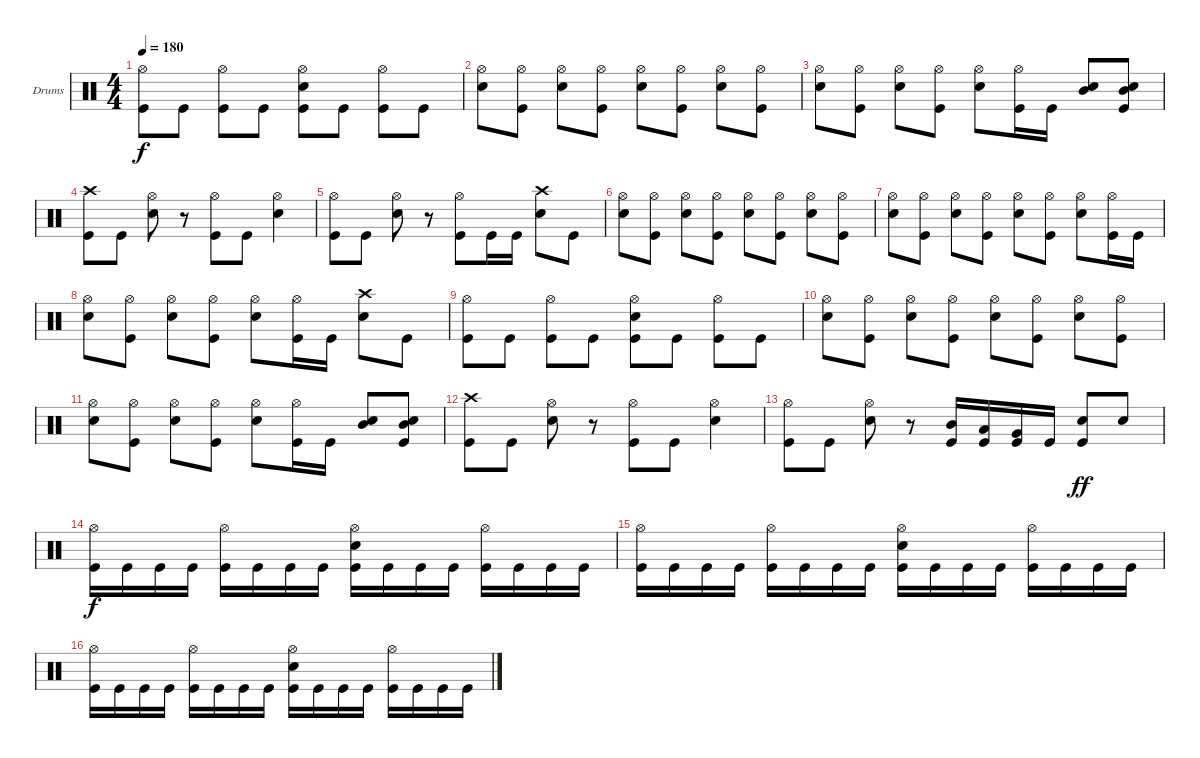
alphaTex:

\bracketExtendMode groupsimilarinstruments
\firstSystemTrackNameOrientation horizontal
\otherSystemsTrackNameOrientation horizontal
\track ("Drumkit" "Drums") {instrument percussion}
\staff {score}
\articulation defaults
\ts (4 4)
\tempo 180
\clef neutral
\ks c
("Hi-Hat (open)" "Kick (hit)").8{dy f} "Kick (hit)".8 ("Hi-Hat (open)" "Kick (hit)").8 "Kick (hit)".8 ("Hi-Hat (open)" "Snare (hit) 2" "Kick (hit)").8 "Kick (hit)".8 ("Hi-Hat (open)" "Kick (hit)").8 "Kick (hit)".8 |
("Hi-Hat (open)" "Snare (hit) 2").8 ("Hi-Hat (open)" "Kick (hit)").8 ("Hi-Hat (open)" "Snare (hit) 2").8 ("Hi-Hat (open)" "Kick (hit)").8 ("Hi-Hat (open)" "Snare (hit) 2").8 ("Hi-Hat (open)" "Kick (hit)").8 ("Hi-Hat (open)" "Snare (hit) 2").8 ("Hi-Hat (open)" "Kick (hit)").8 |
("Hi-Hat (open)" "Snare (hit) 2").8 ("Hi-Hat (open)" "Kick (hit)").8 ("Hi-Hat (open)" "Snare (hit) 2").8 ("Hi-Hat (open)" "Kick (hit)").8 ("Hi-Hat (open)" "Snare (hit) 2").8 ("Hi-Hat (open)" "Kick (hit)").16 "Kick (hit)".16 ("Mid Tom (hit)" "Snare (hit) 2").8 ("Mid Tom (hit)" "Snare (hit) 2" "Kick (hit)").8 |
("Crash high (hit)" "Kick (hit)").8 "Kick (hit)".8 ("Hi-Hat (open)" "Snare (hit) 2").8 r.8 ("Hi-Hat (open)" "Kick (hit)").8 "Kick (hit)".8 ("Hi-Hat (open)" "Snare (hit) 2").4 |
("Hi-Hat (open)" "Kick (hit)").8 "Kick (hit)".8 ("Hi-Hat (open)" "Snare (hit) 2").8 r.8 ("Hi-Hat (open)" "Kick (hit)").8 "Kick (hit)".16 "Kick (hit)".16 ("Crash high (hit)" "Snare (hit) 2").8 "Kick (hit)".8 |
("Hi-Hat (open)" "Snare (hit) 2").8 ("Hi-Hat (open)" "Kick (hit)").8 ("Hi-Hat (open)" "Snare (hit) 2").8 ("Hi-Hat (open)" "Kick (hit)").8 ("Hi-Hat (open)" "Snare (hit) 2").8 ("Hi-Hat (open)" "Kick (hit)").8 ("Hi-Hat (open)" "Snare (hit) 2").8 ("Hi-Hat (open)" "Kick (hit)").8 |
("Hi-Hat (open)" "Snare (hit) 2").8 ("Hi-Hat (open)" "Kick (hit)").8 ("Hi-Hat (open)" "Snare (hit) 2").8 ("Hi-Hat (open)" "Kick (hit)").8 ("Hi-Hat (open)" "Snare (hit) 2").8 ("Hi-Hat (open)" "Kick (hit)").8 ("Hi-Hat (open)" "Snare (hit) 2").8 ("Hi-Hat (open)" "Kick (hit)").16 "Kick (hit)".16 |
("Hi-Hat (open)" "Snare (hit) 2").8 ("Hi-Hat (open)" "Kick (hit)").8 ("Hi-Hat (open)" "Snare (hit) 2").8 ("Hi-Hat (open)" "Kick (hit)").8 ("Hi-Hat (open)" "Snare (hit) 2").8 ("Hi-Hat (open)" "Kick (hit)").16 "Kick (hit)".16 ("Crash high (hit)" "Snare (hit) 2").8 "Kick (hit)".8 |
("Hi-Hat (open)" "Kick (hit)").8 "Kick (hit)".8 ("Hi-Hat (open)" "Kick (hit)").8 "Kick (hit)".8 ("Hi-Hat (open)" "Snare (hit) 2" "Kick (hit)").8 "Kick (hit)".8 ("Hi-Hat (open)" "Kick (hit)").8 "Kick (hit)".8 |
("Hi-Hat (open)" "Snare (hit) 2").8 ("Hi-Hat (open)" "Kick (hit)").8 ("Hi-Hat (open)" "Snare (hit) 2").8 ("Hi-Hat (open)" "Kick (hit)").8 ("Hi-Hat (open)" "Snare (hit) 2").8 ("Hi-Hat (open)" "Kick (hit)").8 ("Hi-Hat (open)" "Snare (hit) 2").8 ("Hi-Hat (open)" "Kick (hit)").8 |
("Hi-Hat (open)" "Snare (hit) 2").8 ("Hi-Hat (open)" "Kick (hit)").8 ("Hi-Hat (open)" "Snare (hit) 2").8 ("Hi-Hat (open)" "Kick (hit)").8 ("Hi-Hat (open)" "Snare (hit) 2").8 ("Hi-Hat (open)" "Kick (hit)").16 "Kick (hit)".16 ("Mid Tom (hit)" "Snare (hit) 2").8 ("Mid Tom (hit)" "Snare (hit) 2" "Kick (hit)").8 |
("Crash high (hit)" "Kick (hit)").8 "Kick (hit)".8 ("Hi-Hat (open)" "Snare (hit) 2").8 r.8 ("Hi-Hat (open)" "Kick (hit)").8 "Kick (hit)".8 ("Hi-Hat (open)" "Snare (hit) 2").4 |
("Hi-Hat (open)" "Kick (hit)").8 "Kick (hit)".8 ("Hi-Hat (open)" "Snare (hit) 2").8 r.8 ("Mid Tom (hit)" "Kick (hit)").16 ("Low Tom (hit)" "Kick (hit)").16 ("Very Low Tom (hit)" "Kick (hit)").16 "Kick (hit)".16 ("Snare (hit) 2" "Kick (hit)").8{dy ff} "Snare (hit) 2".8 |
("Hi-Hat (open)" "Kick (hit)").16{dy f} "Kick (hit)".16 "Kick (hit)".16 "Kick (hit)".16 ("Hi-Hat (open)" "Kick (hit)").16 "Kick (hit)".16 "Kick (hit)".16 "Kick (hit)".16 ("Hi-Hat (open)" "Snare (hit) 2" "Kick (hit)").16 "Kick (hit)".16 "Kick (hit)".16 "Kick (hit)".16 ("Hi-Hat (open)" "Kick (hit)").16 "Kick (hit)".16 "Kick (hit)".16 "Kick (hit)".16 |
("Hi-Hat (open)" "Kick (hit)").16 "Kick (hit)".16 "Kick (hit)".16 "Kick (hit)".16 ("Hi-Hat (open)" "Kick (hit)").16 "Kick (hit)".16 "Kick (hit)".16 "Kick (hit)".16 ("Hi-Hat (open)" "Snare (hit) 2" "Kick (hit)").16 "Kick (hit)".16 "Kick (hit)".16 "Kick (hit)".16 ("Hi-Hat (open)" "Kick (hit)").16 "Kick (hit)".16 "Kick (hit)".16 "Kick (hit)".16 |
("Hi-Hat (open)" "Kick (hit)").16 "Kick (hit)".16 "Kick (hit)".16 "Kick (hit)".16 ("Hi-Hat (open)" "Kick (hit)").16 "Kick (hit)".16 "Kick (hit)".16 "Kick (hit)".16 ("Hi-Hat (open)" "Snare (hit) 2" "Kick (hit)").16 "Kick (hit)".16 "Kick (hit)".16 "Kick (hit)".16 ("Hi-Hat (open)" "Kick (hit)").16 "Kick (hit)".16 "Kick (hit)".16 "Kick (hit)".16
